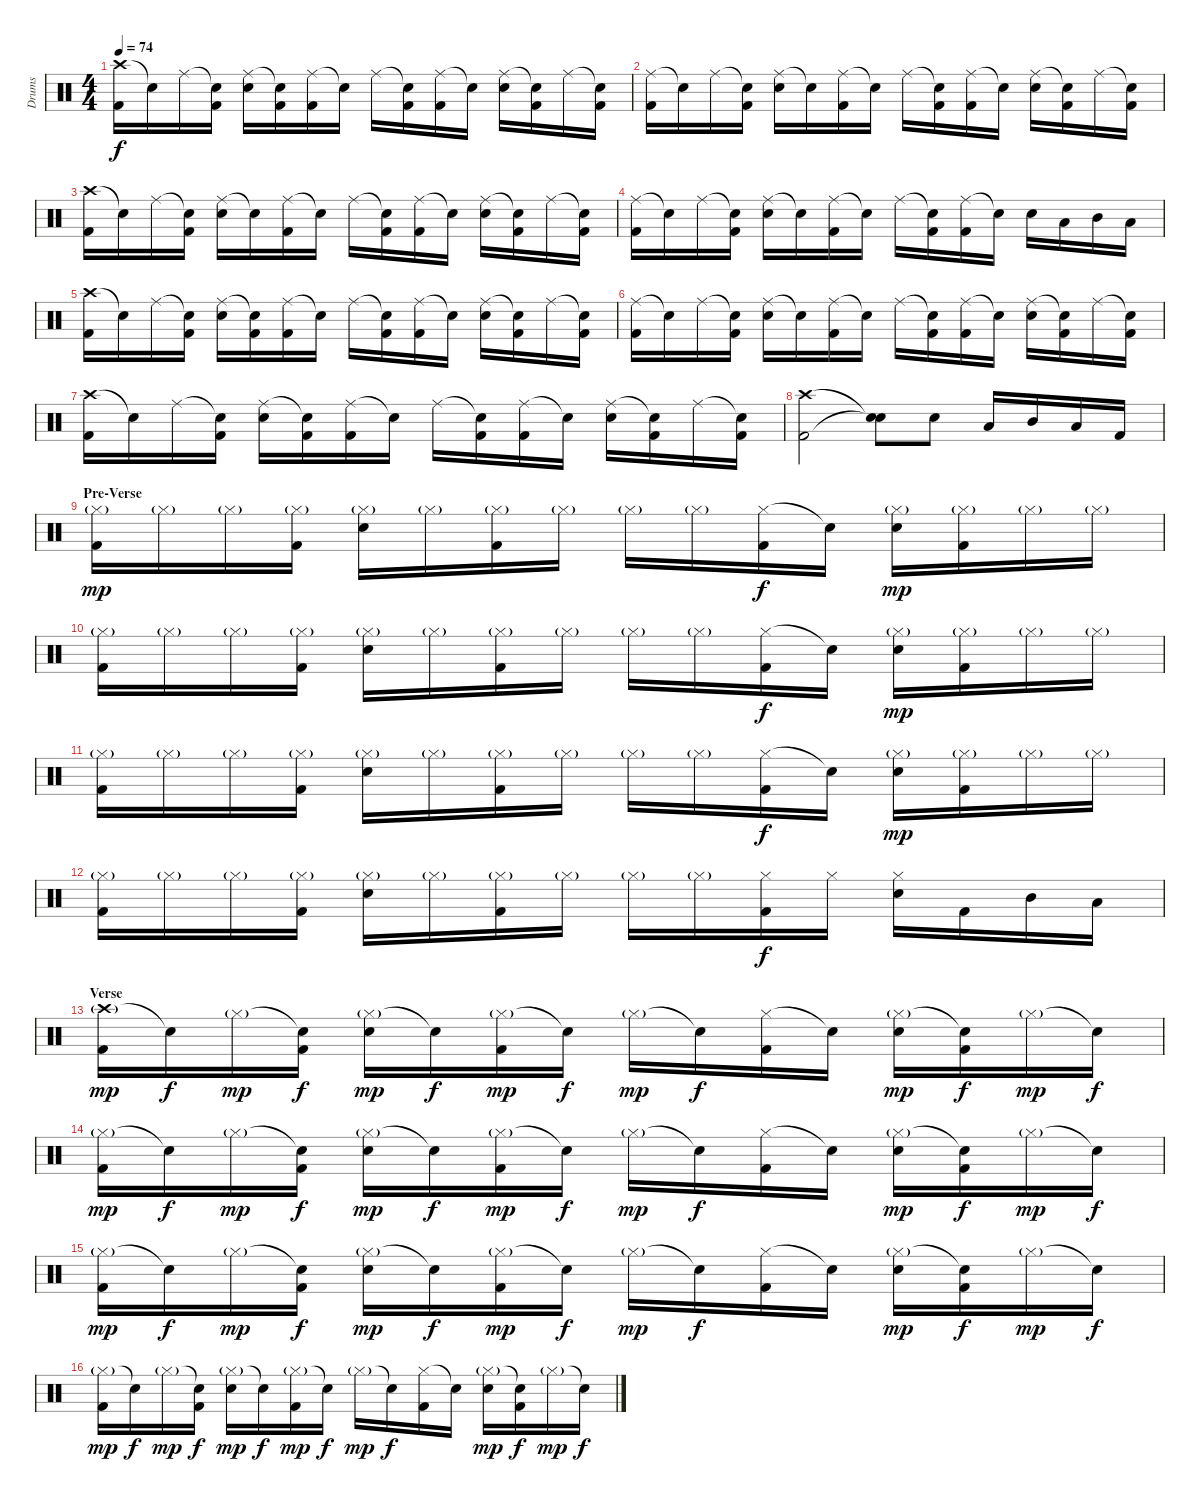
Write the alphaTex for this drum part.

\track ("Drums" "Drums") {instrument percussion}
\staff {score}
\articulation defaults
\ts (4 4)
\tempo 74
\clef neutral
\ks c
("Crash high (hit)" "Kick (hit) 2").16{dy f} "Snare (hit)"{t}.16 "Ride (middle)".16 ("Snare (hit)"{t} "Kick (hit) 2").16 ("Ride (middle)" "Electric Snare (hit)").16 ("Snare (hit)"{t} "Kick (hit) 2").16 ("Ride (middle)" "Kick (hit) 2").16 "Snare (hit)"{t}.16 "Ride (middle)".16 ("Snare (hit)"{t} "Kick (hit) 2").16 ("Ride (middle)" "Kick (hit) 2").16 "Snare (hit)"{t}.16 ("Ride (middle)" "Electric Snare (hit)").16 ("Snare (hit)"{t} "Kick (hit) 2").16 "Ride (middle)".16 ("Snare (hit)"{t} "Kick (hit) 2").16 |
("Ride (middle)" "Kick (hit) 2").16 "Snare (hit)"{t}.16 "Ride (middle)".16 ("Snare (hit)"{t} "Kick (hit) 2").16 ("Ride (middle)" "Electric Snare (hit)").16 "Snare (hit)"{t}.16 ("Ride (middle)" "Kick (hit) 2").16 "Snare (hit)"{t}.16 "Ride (middle)".16 ("Snare (hit)"{t} "Kick (hit) 2").16 ("Ride (middle)" "Kick (hit) 2").16 "Snare (hit)"{t}.16 ("Ride (middle)" "Electric Snare (hit)").16 ("Snare (hit)"{t} "Kick (hit) 2").16 "Ride (middle)".16 ("Snare (hit)"{t} "Kick (hit) 2").16 |
("Crash high (hit)" "Kick (hit) 2").16 "Snare (hit)"{t}.16 "Ride (middle)".16 ("Snare (hit)"{t} "Kick (hit) 2").16 ("Ride (middle)" "Electric Snare (hit)").16 "Snare (hit)"{t}.16 ("Ride (middle)" "Kick (hit) 2").16 "Snare (hit)"{t}.16 "Ride (middle)".16 ("Snare (hit)"{t} "Kick (hit) 2").16 ("Ride (middle)" "Kick (hit) 2").16 "Snare (hit)"{t}.16 ("Ride (middle)" "Electric Snare (hit)").16 ("Snare (hit)"{t} "Kick (hit) 2").16 "Ride (middle)".16 ("Snare (hit)"{t} "Kick (hit) 2").16 |
("Ride (middle)" "Kick (hit) 2").16 "Snare (hit)"{t}.16 "Ride (middle)".16 ("Snare (hit)"{t} "Kick (hit) 2").16 ("Ride (middle)" "Electric Snare (hit)").16 "Snare (hit)"{t}.16 ("Ride (middle)" "Kick (hit) 2").16 "Snare (hit)"{t}.16 "Ride (middle)".16 ("Snare (hit)"{t} "Kick (hit) 2").16 ("Ride (middle)" "Kick (hit) 2").16 "Snare (hit)"{t}.16 "Electric Snare (hit)".16 "Low Tom (hit)".16 "Mid Tom (hit)".16 "Low Floor Tom (hit)".16 |
("Crash high (hit)" "Kick (hit) 2").16 "Snare (hit)"{t}.16 "Ride (middle)".16 ("Snare (hit)"{t} "Kick (hit) 2").16 ("Ride (middle)" "Electric Snare (hit)").16 ("Snare (hit)"{t} "Kick (hit) 2").16 ("Ride (middle)" "Kick (hit) 2").16 "Snare (hit)"{t}.16 "Ride (middle)".16 ("Snare (hit)"{t} "Kick (hit) 2").16 ("Ride (middle)" "Kick (hit) 2").16 "Snare (hit)"{t}.16 ("Ride (middle)" "Electric Snare (hit)").16 ("Snare (hit)"{t} "Kick (hit) 2").16 "Ride (middle)".16 ("Snare (hit)"{t} "Kick (hit) 2").16 |
("Ride (middle)" "Kick (hit) 2").16 "Snare (hit)"{t}.16 "Ride (middle)".16 ("Snare (hit)"{t} "Kick (hit) 2").16 ("Ride (middle)" "Electric Snare (hit)").16 "Snare (hit)"{t}.16 ("Ride (middle)" "Kick (hit) 2").16 "Snare (hit)"{t}.16 "Ride (middle)".16 ("Snare (hit)"{t} "Kick (hit) 2").16 ("Ride (middle)" "Kick (hit) 2").16 "Snare (hit)"{t}.16 ("Ride (middle)" "Electric Snare (hit)").16 ("Snare (hit)"{t} "Kick (hit) 2").16 "Ride (middle)".16 ("Snare (hit)"{t} "Kick (hit) 2").16 |
("Crash high (hit)" "Kick (hit) 2").16 "Snare (hit)"{t}.16 "Ride (middle)".16 ("Snare (hit)"{t} "Kick (hit) 2").16 ("Ride (middle)" "Electric Snare (hit)").16 ("Snare (hit)"{t} "Kick (hit) 2").16 ("Ride (middle)" "Kick (hit) 2").16 "Snare (hit)"{t}.16 "Ride (middle)".16 ("Snare (hit)"{t} "Kick (hit) 2").16 ("Ride (middle)" "Kick (hit) 2").16 "Snare (hit)"{t}.16 ("Ride (middle)" "Electric Snare (hit)").16 ("Snare (hit)"{t} "Kick (hit) 2").16 "Ride (middle)".16 ("Snare (hit)"{t} "Kick (hit) 2").16 |
("Crash high (hit)" "Kick (hit) 2").2 ("Snare (hit)"{t} "Snare (hit)"{t}).8 "Electric Snare (hit)".8 "Low Tom (hit)".16 "Mid Tom (hit)".16 "Low Floor Tom (hit)".16 "Kick (hit) 2".16 |
\section ("" "Pre-Verse")
("Hi-Hat (closed)"{g} "Kick (hit) 2").16{dy mp} "Hi-Hat (closed)"{g}.16 "Hi-Hat (closed)"{g}.16 ("Hi-Hat (closed)"{g} "Kick (hit) 2").16 ("Hi-Hat (closed)"{g} "Electric Snare (hit)").16 "Hi-Hat (closed)"{g}.16 ("Hi-Hat (closed)"{g} "Kick (hit) 2").16 "Hi-Hat (closed)"{g}.16 "Hi-Hat (closed)"{g}.16 "Hi-Hat (closed)"{g}.16 ("Hi-Hat (closed)" "Kick (hit) 2").16{dy f} "Snare (hit)"{t}.16 ("Hi-Hat (closed)"{g} "Electric Snare (hit)").16{dy mp} ("Hi-Hat (closed)"{g} "Kick (hit) 2").16 "Hi-Hat (closed)"{g}.16 "Hi-Hat (closed)"{g}.16 |
("Hi-Hat (closed)"{g} "Kick (hit) 2").16 "Hi-Hat (closed)"{g}.16 "Hi-Hat (closed)"{g}.16 ("Hi-Hat (closed)"{g} "Kick (hit) 2").16 ("Hi-Hat (closed)"{g} "Electric Snare (hit)").16 "Hi-Hat (closed)"{g}.16 ("Hi-Hat (closed)"{g} "Kick (hit) 2").16 "Hi-Hat (closed)"{g}.16 "Hi-Hat (closed)"{g}.16 "Hi-Hat (closed)"{g}.16 ("Hi-Hat (closed)" "Kick (hit) 2").16{dy f} "Snare (hit)"{t}.16 ("Hi-Hat (closed)"{g} "Electric Snare (hit)").16{dy mp} ("Hi-Hat (closed)"{g} "Kick (hit) 2").16 "Hi-Hat (closed)"{g}.16 "Hi-Hat (closed)"{g}.16 |
("Hi-Hat (closed)"{g} "Kick (hit) 2").16 "Hi-Hat (closed)"{g}.16 "Hi-Hat (closed)"{g}.16 ("Hi-Hat (closed)"{g} "Kick (hit) 2").16 ("Hi-Hat (closed)"{g} "Electric Snare (hit)").16 "Hi-Hat (closed)"{g}.16 ("Hi-Hat (closed)"{g} "Kick (hit) 2").16 "Hi-Hat (closed)"{g}.16 "Hi-Hat (closed)"{g}.16 "Hi-Hat (closed)"{g}.16 ("Hi-Hat (closed)" "Kick (hit) 2").16{dy f} "Snare (hit)"{t}.16 ("Hi-Hat (closed)"{g} "Electric Snare (hit)").16{dy mp} ("Hi-Hat (closed)"{g} "Kick (hit) 2").16 "Hi-Hat (closed)"{g}.16 "Hi-Hat (closed)"{g}.16 |
("Hi-Hat (closed)"{g} "Kick (hit) 2").16 "Hi-Hat (closed)"{g}.16 "Hi-Hat (closed)"{g}.16 ("Hi-Hat (closed)"{g} "Kick (hit) 2").16 ("Hi-Hat (closed)"{g} "Electric Snare (hit)").16 "Hi-Hat (closed)"{g}.16 ("Hi-Hat (closed)"{g} "Kick (hit) 2").16 "Hi-Hat (closed)"{g}.16 "Hi-Hat (closed)"{g}.16 "Hi-Hat (closed)"{g}.16 ("Hi-Hat (closed)" "Kick (hit) 2").16{dy f} "Hi-Hat (closed)".16 ("Hi-Hat (closed)" "Electric Snare (hit)").16 "Kick (hit) 2".16 "Mid Tom (hit)".16 "Low Floor Tom (hit)".16 |
\section ("" "Verse")
("Crash high (hit)"{g} "Kick (hit) 2").16{dy mp} "Snare (hit)"{t}.16{dy f} "Hi-Hat (closed)"{g}.16{dy mp} ("Snare (hit)"{t} "Kick (hit) 2").16{dy f} ("Hi-Hat (closed)"{g} "Electric Snare (hit)").16{dy mp} "Snare (hit)"{t}.16{dy f} ("Hi-Hat (closed)"{g} "Kick (hit) 2").16{dy mp} "Snare (hit)"{t}.16{dy f} "Hi-Hat (closed)"{g}.16{dy mp} "Snare (hit)"{t}.16{dy f} ("Hi-Hat (closed)" "Kick (hit) 2").16 "Snare (hit)"{t}.16 ("Hi-Hat (closed)"{g} "Electric Snare (hit)").16{dy mp} ("Snare (hit)"{t} "Kick (hit) 2").16{dy f} "Hi-Hat (closed)"{g}.16{dy mp} "Snare (hit)"{t}.16{dy f} |
("Hi-Hat (closed)"{g} "Kick (hit) 2").16{dy mp} "Snare (hit)"{t}.16{dy f} "Hi-Hat (closed)"{g}.16{dy mp} ("Snare (hit)"{t} "Kick (hit) 2").16{dy f} ("Hi-Hat (closed)"{g} "Electric Snare (hit)").16{dy mp} "Snare (hit)"{t}.16{dy f} ("Hi-Hat (closed)"{g} "Kick (hit) 2").16{dy mp} "Snare (hit)"{t}.16{dy f} "Hi-Hat (closed)"{g}.16{dy mp} "Snare (hit)"{t}.16{dy f} ("Hi-Hat (closed)" "Kick (hit) 2").16 "Snare (hit)"{t}.16 ("Hi-Hat (closed)"{g} "Electric Snare (hit)").16{dy mp} ("Snare (hit)"{t} "Kick (hit) 2").16{dy f} "Hi-Hat (closed)"{g}.16{dy mp} "Snare (hit)"{t}.16{dy f} |
("Hi-Hat (closed)"{g} "Kick (hit) 2").16{dy mp} "Snare (hit)"{t}.16{dy f} "Hi-Hat (closed)"{g}.16{dy mp} ("Snare (hit)"{t} "Kick (hit) 2").16{dy f} ("Hi-Hat (closed)"{g} "Electric Snare (hit)").16{dy mp} "Snare (hit)"{t}.16{dy f} ("Hi-Hat (closed)"{g} "Kick (hit) 2").16{dy mp} "Snare (hit)"{t}.16{dy f} "Hi-Hat (closed)"{g}.16{dy mp} "Snare (hit)"{t}.16{dy f} ("Hi-Hat (closed)" "Kick (hit) 2").16 "Snare (hit)"{t}.16 ("Hi-Hat (closed)"{g} "Electric Snare (hit)").16{dy mp} ("Snare (hit)"{t} "Kick (hit) 2").16{dy f} "Hi-Hat (closed)"{g}.16{dy mp} "Snare (hit)"{t}.16{dy f} |
("Hi-Hat (closed)"{g} "Kick (hit) 2").16{dy mp} "Snare (hit)"{t}.16{dy f} "Hi-Hat (closed)"{g}.16{dy mp} ("Snare (hit)"{t} "Kick (hit) 2").16{dy f} ("Hi-Hat (closed)"{g} "Electric Snare (hit)").16{dy mp} "Snare (hit)"{t}.16{dy f} ("Hi-Hat (closed)"{g} "Kick (hit) 2").16{dy mp} "Snare (hit)"{t}.16{dy f} "Hi-Hat (closed)"{g}.16{dy mp} "Snare (hit)"{t}.16{dy f} ("Hi-Hat (closed)" "Kick (hit) 2").16 "Snare (hit)"{t}.16 ("Hi-Hat (closed)"{g} "Electric Snare (hit)").16{dy mp} ("Snare (hit)"{t} "Kick (hit) 2").16{dy f} "Hi-Hat (closed)"{g}.16{dy mp} "Snare (hit)"{t}.16{dy f}
